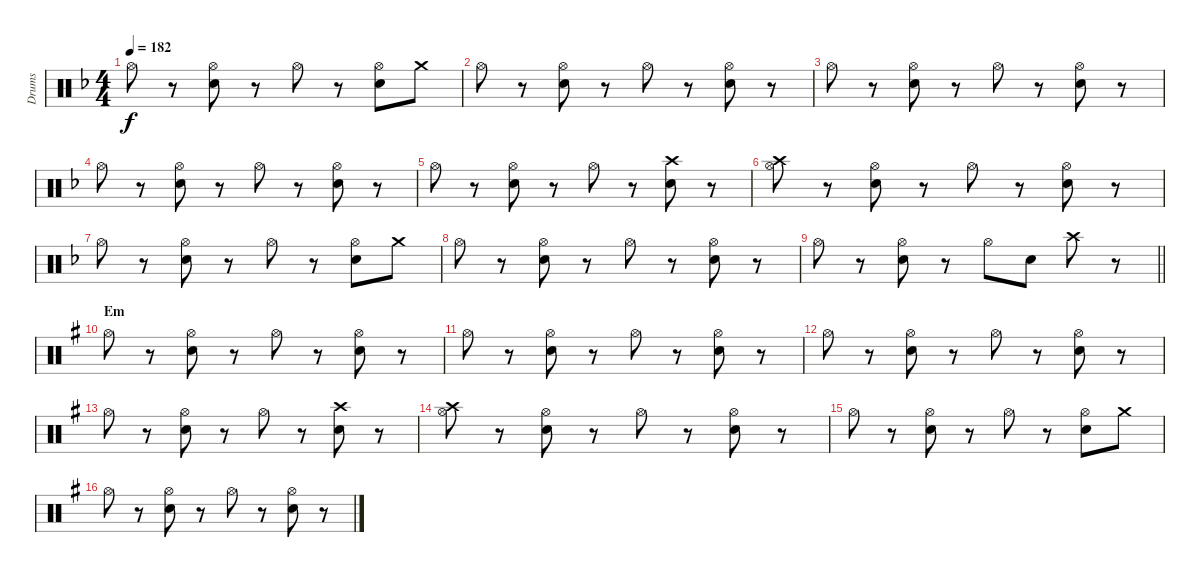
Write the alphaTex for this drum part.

\track ("Drums" "Drums") {instrument percussion}
\staff {score}
\articulation defaults
\ts (4 4)
\tempo 182
\clef neutral
\ks dminor "Hi-Hat (open)".8{dy f}
r.8 ("Hi-Hat (open)" "Snare (hit) 2").8 r.8 "Hi-Hat (open)".8 r.8 ("Hi-Hat (open)" "Snare (hit) 2").8 "Crash medium (hit)".8 |
"Hi-Hat (open)".8 r.8 ("Hi-Hat (open)" "Snare (hit) 2").8 r.8 "Hi-Hat (open)".8 r.8 ("Hi-Hat (open)" "Snare (hit) 2").8 r.8 |
"Hi-Hat (open)".8 r.8 ("Hi-Hat (open)" "Snare (hit) 2").8 r.8 "Hi-Hat (open)".8 r.8 ("Hi-Hat (open)" "Snare (hit) 2").8 r.8 |
"Hi-Hat (open)".8 r.8 ("Hi-Hat (open)" "Snare (hit) 2").8 r.8 "Hi-Hat (open)".8 r.8 ("Hi-Hat (open)" "Snare (hit) 2").8 r.8 |
"Hi-Hat (open)".8 r.8 ("Hi-Hat (open)" "Snare (hit) 2").8 r.8 "Hi-Hat (open)".8 r.8 ("Crash high (hit)" "Snare (hit) 2").8 r.8 |
("Hi-Hat (open)" "Crash high (hit)").8 r.8 ("Hi-Hat (open)" "Snare (hit) 2").8 r.8 "Hi-Hat (open)".8 r.8 ("Hi-Hat (open)" "Snare (hit) 2").8 r.8 |
"Hi-Hat (open)".8 r.8 ("Hi-Hat (open)" "Snare (hit) 2").8 r.8 "Hi-Hat (open)".8 r.8 ("Hi-Hat (open)" "Snare (hit) 2").8 "Crash medium (hit)".8 |
"Hi-Hat (open)".8 r.8 ("Hi-Hat (open)" "Snare (hit) 2").8 r.8 "Hi-Hat (open)".8 r.8 ("Hi-Hat (open)" "Snare (hit) 2").8 r.8 |
\barLineRight lightlight "Hi-Hat (open)".8
r.8 ("Hi-Hat (open)" "Snare (hit) 2").8 r.8 "Hi-Hat (open)".8 "Snare (hit) 2".8 "Crash high (hit)".8 r.8 |
\section ("" "Em")
\ks eminor "Hi-Hat (open)".8
r.8 ("Hi-Hat (open)" "Snare (hit) 2").8 r.8 "Hi-Hat (open)".8 r.8 ("Hi-Hat (open)" "Snare (hit) 2").8 r.8 |
"Hi-Hat (open)".8 r.8 ("Hi-Hat (open)" "Snare (hit) 2").8 r.8 "Hi-Hat (open)".8 r.8 ("Hi-Hat (open)" "Snare (hit) 2").8 r.8 |
"Hi-Hat (open)".8 r.8 ("Hi-Hat (open)" "Snare (hit) 2").8 r.8 "Hi-Hat (open)".8 r.8 ("Hi-Hat (open)" "Snare (hit) 2").8 r.8 |
"Hi-Hat (open)".8 r.8 ("Hi-Hat (open)" "Snare (hit) 2").8 r.8 "Hi-Hat (open)".8 r.8 ("Crash high (hit)" "Snare (hit) 2").8 r.8 |
("Hi-Hat (open)" "Crash high (hit)").8 r.8 ("Hi-Hat (open)" "Snare (hit) 2").8 r.8 "Hi-Hat (open)".8 r.8 ("Hi-Hat (open)" "Snare (hit) 2").8 r.8 |
"Hi-Hat (open)".8 r.8 ("Hi-Hat (open)" "Snare (hit) 2").8 r.8 "Hi-Hat (open)".8 r.8 ("Hi-Hat (open)" "Snare (hit) 2").8 "Crash medium (hit)".8 |
"Hi-Hat (open)".8 r.8 ("Hi-Hat (open)" "Snare (hit) 2").8 r.8 "Hi-Hat (open)".8 r.8 ("Hi-Hat (open)" "Snare (hit) 2").8 r.8
